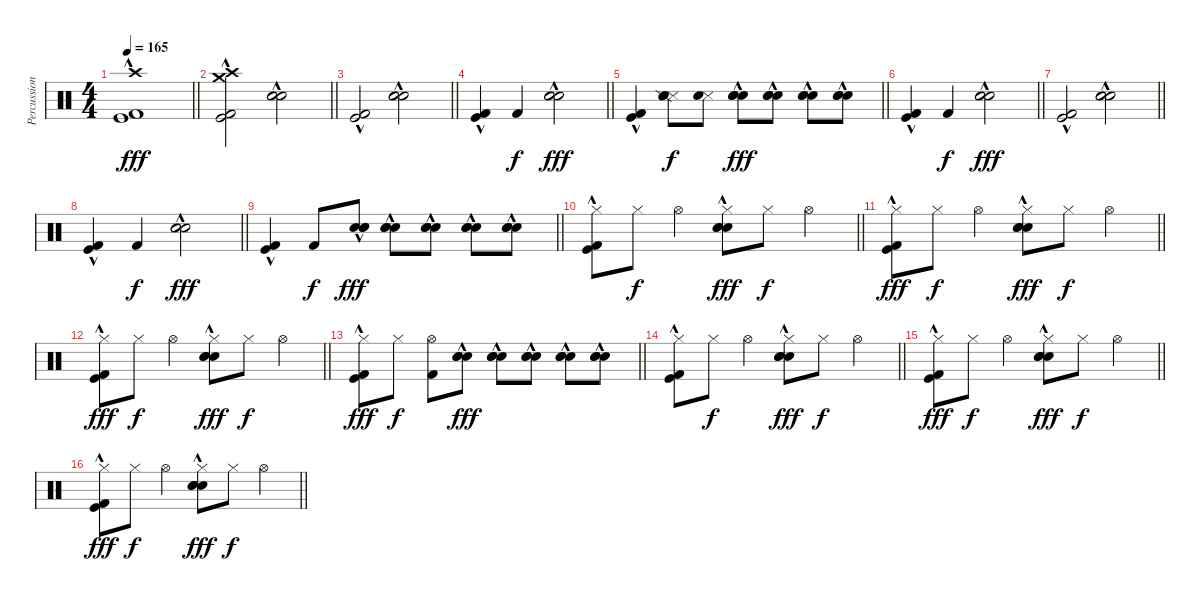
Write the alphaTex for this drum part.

\track ("Percussion" "Percussion") {instrument percussion}
\staff {score}
\articulation defaults
\ts (4 4)
\tempo 165
\clef neutral
\barLineRight lightlight
\ks c
("Crash high (hit)" "Kick (hit) 2"{hac} "Kick (hit)"{hac}).1{dy fff} |
\barLineRight lightlight
("Crash high (hit)" "Crash medium (hit)" "Kick (hit) 2"{hac} "Kick (hit)"{hac}).2 ("Snare (hit) 2" "Hand Clap (hit)"{hac} "Electric Snare (hit)").2 |
\barLineRight lightlight
("Kick (hit) 2"{hac} "Kick (hit)"{hac}).2 ("Snare (hit) 2" "Hand Clap (hit)"{hac} "Electric Snare (hit)").2 |
\barLineRight lightlight
("Kick (hit) 2"{hac} "Kick (hit)"{hac}).4 "Kick (hit) 2".4{dy f} ("Snare (hit) 2" "Hand Clap (hit)"{hac} "Electric Snare (hit)").2{dy fff} |
\barLineRight lightlight
("Kick (hit) 2"{hac} "Kick (hit)"{hac}).4 ("Snare (side stick) 3" "Electric Snare (hit)" "Snare (side stick) 2").8{dy f} ("Snare (side stick) 3" "Electric Snare (hit)").8 ("Snare (hit) 2"{hac} "Hand Clap (hit)"{hac} "Electric Snare (hit)"{hac}).8{dy fff} ("Snare (hit) 2"{hac} "Hand Clap (hit)"{hac} "Electric Snare (hit)"{hac}).8 ("Snare (hit) 2"{hac} "Hand Clap (hit)"{hac} "Electric Snare (hit)"{hac}).8 ("Snare (hit) 2"{hac} "Hand Clap (hit)"{hac} "Electric Snare (hit)"{hac}).8 |
\barLineRight lightlight
("Kick (hit) 2"{hac} "Kick (hit)"{hac}).4 "Kick (hit) 2".4{dy f} ("Snare (hit) 2" "Hand Clap (hit)"{hac} "Electric Snare (hit)").2{dy fff} |
\barLineRight lightlight
("Kick (hit) 2"{hac} "Kick (hit)"{hac}).2 ("Snare (hit) 2" "Hand Clap (hit)"{hac} "Electric Snare (hit)").2 |
\barLineRight lightlight
("Kick (hit) 2"{hac} "Kick (hit)"{hac}).4 "Kick (hit) 2".4{dy f} ("Snare (hit) 2" "Hand Clap (hit)"{hac} "Electric Snare (hit)").2{dy fff} |
\barLineRight lightlight
("Kick (hit) 2"{hac} "Kick (hit)"{hac}).4 "Kick (hit) 2".8{dy f} ("Snare (hit) 2"{hac} "Hand Clap (hit)"{hac} "Electric Snare (hit)"{hac}).8{dy fff} ("Snare (hit) 2"{hac} "Hand Clap (hit)"{hac} "Electric Snare (hit)"{hac}).8 ("Snare (hit) 2"{hac} "Hand Clap (hit)"{hac} "Electric Snare (hit)"{hac}).8 ("Snare (hit) 2"{hac} "Hand Clap (hit)"{hac} "Electric Snare (hit)"{hac}).8 ("Snare (hit) 2"{hac} "Hand Clap (hit)"{hac} "Electric Snare (hit)"{hac}).8 |
\barLineRight lightlight
("Hi-Hat (closed)" "Kick (hit) 2"{hac} "Kick (hit)"{hac}).8 "Hi-Hat (closed)".8{dy f} "Hi-Hat (open)".4 ("Hi-Hat (closed)" "Snare (hit) 2" "Hand Clap (hit)"{hac} "Electric Snare (hit)").8{dy fff} "Hi-Hat (closed)".8{dy f} "Hi-Hat (open)".4 |
\barLineRight lightlight
("Hi-Hat (closed)" "Kick (hit) 2"{hac} "Kick (hit)"{hac}).8{dy fff} "Hi-Hat (closed)".8{dy f} "Hi-Hat (open)".4 ("Hi-Hat (closed)" "Snare (hit) 2" "Hand Clap (hit)"{hac} "Electric Snare (hit)").8{dy fff} "Hi-Hat (closed)".8{dy f} "Hi-Hat (open)".4 |
\barLineRight lightlight
("Hi-Hat (closed)" "Kick (hit) 2"{hac} "Kick (hit)"{hac}).8{dy fff} "Hi-Hat (closed)".8{dy f} "Hi-Hat (open)".4 ("Hi-Hat (closed)" "Snare (hit) 2" "Hand Clap (hit)"{hac} "Electric Snare (hit)").8{dy fff} "Hi-Hat (closed)".8{dy f} "Hi-Hat (open)".4 |
\barLineRight lightlight
("Hi-Hat (closed)" "Kick (hit) 2"{hac} "Kick (hit)"{hac}).8{dy fff} "Hi-Hat (closed)".8{dy f} ("Hi-Hat (open)" "Kick (hit) 2").8 ("Snare (hit) 2"{hac} "Hand Clap (hit)"{hac} "Electric Snare (hit)"{hac}).8{dy fff} ("Snare (hit) 2"{hac} "Hand Clap (hit)"{hac} "Electric Snare (hit)"{hac}).8 ("Snare (hit) 2"{hac} "Hand Clap (hit)"{hac} "Electric Snare (hit)"{hac}).8 ("Snare (hit) 2"{hac} "Hand Clap (hit)"{hac} "Electric Snare (hit)"{hac}).8 ("Snare (hit) 2"{hac} "Hand Clap (hit)"{hac} "Electric Snare (hit)"{hac}).8 |
\barLineRight lightlight
("Hi-Hat (closed)" "Kick (hit) 2"{hac} "Kick (hit)"{hac}).8 "Hi-Hat (closed)".8{dy f} "Hi-Hat (open)".4 ("Hi-Hat (closed)" "Snare (hit) 2" "Hand Clap (hit)"{hac} "Electric Snare (hit)").8{dy fff} "Hi-Hat (closed)".8{dy f} "Hi-Hat (open)".4 |
\barLineRight lightlight
("Hi-Hat (closed)" "Kick (hit) 2"{hac} "Kick (hit)"{hac}).8{dy fff} "Hi-Hat (closed)".8{dy f} "Hi-Hat (open)".4 ("Hi-Hat (closed)" "Snare (hit) 2" "Hand Clap (hit)"{hac} "Electric Snare (hit)").8{dy fff} "Hi-Hat (closed)".8{dy f} "Hi-Hat (open)".4 |
\barLineRight lightlight
("Hi-Hat (closed)" "Kick (hit) 2"{hac} "Kick (hit)"{hac}).8{dy fff} "Hi-Hat (closed)".8{dy f} "Hi-Hat (open)".4 ("Hi-Hat (closed)" "Snare (hit) 2" "Hand Clap (hit)"{hac} "Electric Snare (hit)").8{dy fff} "Hi-Hat (closed)".8{dy f} "Hi-Hat (open)".4
